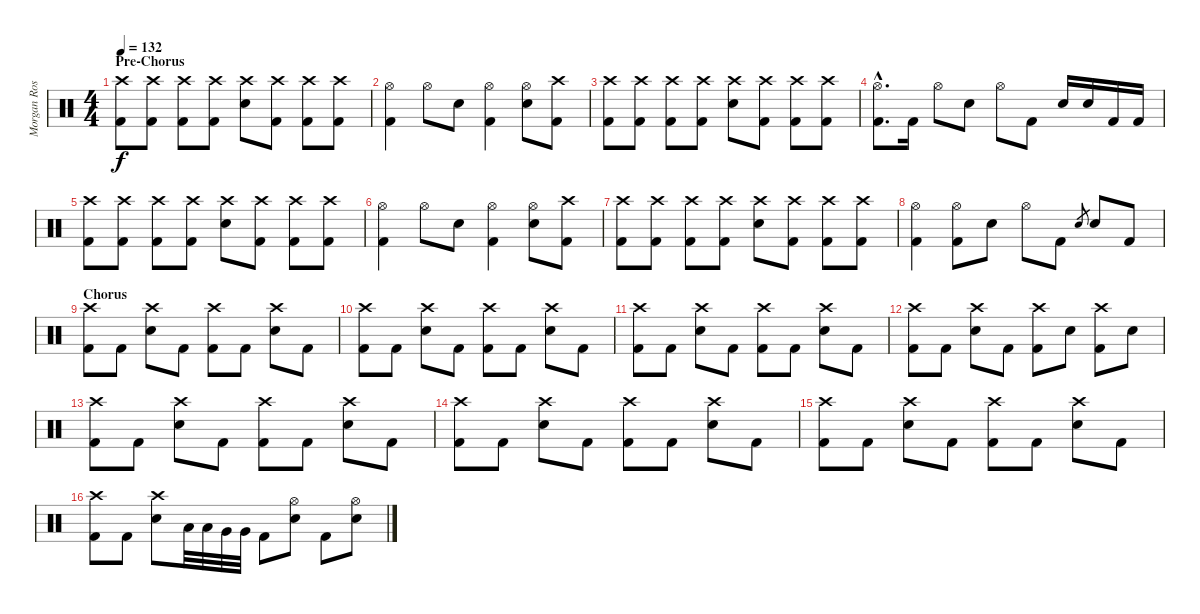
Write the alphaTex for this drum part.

\track ("Morgan Rose" "Morgan Ros") {instrument percussion}
\staff {score}
\articulation defaults
\ts (4 4)
\section ("" "Pre-Chorus")
\tempo 132
\clef neutral
\ks c
("Crash high (hit)" "Kick (hit) 2").8{dy f} ("Crash high (hit)" "Kick (hit) 2").8 ("Crash high (hit)" "Kick (hit) 2").8 ("Crash high (hit)" "Kick (hit) 2").8 ("Crash high (hit)" "Electric Snare (hit)").8 ("Crash high (hit)" "Kick (hit) 2").8 ("Crash high (hit)" "Kick (hit) 2").8 ("Crash high (hit)" "Kick (hit) 2").8 |
("Hi-Hat (open)" "Kick (hit) 2").4 "Hi-Hat (open)".8 "Electric Snare (hit)".8 ("Hi-Hat (open)" "Kick (hit) 2").4 ("Hi-Hat (open)" "Electric Snare (hit)").8 ("Crash high (hit)" "Kick (hit) 2").8 |
("Crash high (hit)" "Kick (hit) 2").8 ("Crash high (hit)" "Kick (hit) 2").8 ("Crash high (hit)" "Kick (hit) 2").8 ("Crash high (hit)" "Kick (hit) 2").8 ("Crash high (hit)" "Electric Snare (hit)").8 ("Crash high (hit)" "Kick (hit) 2").8 ("Crash high (hit)" "Kick (hit) 2").8 ("Crash high (hit)" "Kick (hit) 2").8 |
("Hi-Hat (open)"{hac} "Kick (hit) 2"{hac}).8{d} "Kick (hit) 2".16 "Hi-Hat (open)".8 "Electric Snare (hit)".8 "Hi-Hat (open)".8 "Kick (hit) 2".8 "Electric Snare (hit)".16 "Electric Snare (hit)".16 "Kick (hit) 2".16 "Kick (hit) 2".16 |
("Crash high (hit)" "Kick (hit) 2").8 ("Crash high (hit)" "Kick (hit) 2").8 ("Crash high (hit)" "Kick (hit) 2").8 ("Crash high (hit)" "Kick (hit) 2").8 ("Crash high (hit)" "Electric Snare (hit)").8 ("Crash high (hit)" "Kick (hit) 2").8 ("Crash high (hit)" "Kick (hit) 2").8 ("Crash high (hit)" "Kick (hit) 2").8 |
("Hi-Hat (open)" "Kick (hit) 2").4 "Hi-Hat (open)".8 "Electric Snare (hit)".8 ("Hi-Hat (open)" "Kick (hit) 2").4 ("Hi-Hat (open)" "Electric Snare (hit)").8 ("Crash high (hit)" "Kick (hit) 2").8 |
("Crash high (hit)" "Kick (hit) 2").8 ("Crash high (hit)" "Kick (hit) 2").8 ("Crash high (hit)" "Kick (hit) 2").8 ("Crash high (hit)" "Kick (hit) 2").8 ("Crash high (hit)" "Electric Snare (hit)").8 ("Crash high (hit)" "Kick (hit) 2").8 ("Crash high (hit)" "Kick (hit) 2").8 ("Crash high (hit)" "Kick (hit) 2").8 |
("Hi-Hat (open)" "Kick (hit) 2").4 ("Hi-Hat (open)" "Kick (hit) 2").8 "Electric Snare (hit)".8 "Hi-Hat (open)".8 "Kick (hit) 2".8 "Electric Snare (hit)"{h}.8{gr} "Electric Snare (hit)".8 "Kick (hit) 2".8 |
\section ("" "Chorus")
("Crash high (hit)" "Kick (hit) 2").8 "Kick (hit) 2".8 ("Crash high (hit)" "Electric Snare (hit)").8 "Kick (hit) 2".8 ("Crash high (hit)" "Kick (hit) 2").8 "Kick (hit) 2".8 ("Crash high (hit)" "Electric Snare (hit)").8 "Kick (hit) 2".8 |
("Crash high (hit)" "Kick (hit) 2").8 "Kick (hit) 2".8 ("Crash high (hit)" "Electric Snare (hit)").8 "Kick (hit) 2".8 ("Crash high (hit)" "Kick (hit) 2").8 "Kick (hit) 2".8 ("Crash high (hit)" "Electric Snare (hit)").8 "Kick (hit) 2".8 |
("Crash high (hit)" "Kick (hit) 2").8 "Kick (hit) 2".8 ("Crash high (hit)" "Electric Snare (hit)").8 "Kick (hit) 2".8 ("Crash high (hit)" "Kick (hit) 2").8 "Kick (hit) 2".8 ("Crash high (hit)" "Electric Snare (hit)").8 "Kick (hit) 2".8 |
("Crash high (hit)" "Kick (hit) 2").8 "Kick (hit) 2".8 ("Crash high (hit)" "Electric Snare (hit)").8 "Kick (hit) 2".8 ("Crash high (hit)" "Kick (hit) 2").8 "Electric Snare (hit)".8 ("Crash high (hit)" "Kick (hit) 2").8 "Electric Snare (hit)".8 |
("Crash high (hit)" "Kick (hit) 2").8 "Kick (hit) 2".8 ("Crash high (hit)" "Electric Snare (hit)").8 "Kick (hit) 2".8 ("Crash high (hit)" "Kick (hit) 2").8 "Kick (hit) 2".8 ("Crash high (hit)" "Electric Snare (hit)").8 "Kick (hit) 2".8 |
("Crash high (hit)" "Kick (hit) 2").8 "Kick (hit) 2".8 ("Crash high (hit)" "Electric Snare (hit)").8 "Kick (hit) 2".8 ("Crash high (hit)" "Kick (hit) 2").8 "Kick (hit) 2".8 ("Crash high (hit)" "Electric Snare (hit)").8 "Kick (hit) 2".8 |
("Crash high (hit)" "Kick (hit) 2").8 "Kick (hit) 2".8 ("Crash high (hit)" "Electric Snare (hit)").8 "Kick (hit) 2".8 ("Crash high (hit)" "Kick (hit) 2").8 "Kick (hit) 2".8 ("Crash high (hit)" "Electric Snare (hit)").8 "Kick (hit) 2".8 |
("Crash high (hit)" "Kick (hit) 2").8 "Kick (hit) 2".8 ("Crash high (hit)" "Electric Snare (hit)").8 "Low Tom (hit)".32 "Low Tom (hit)".32 "Very Low Tom (hit)".32 "Very Low Tom (hit)".32 "Kick (hit) 2".8 ("Hi-Hat (open)" "Electric Snare (hit)").8 "Kick (hit) 2".8 ("Hi-Hat (open)" "Electric Snare (hit)").8
